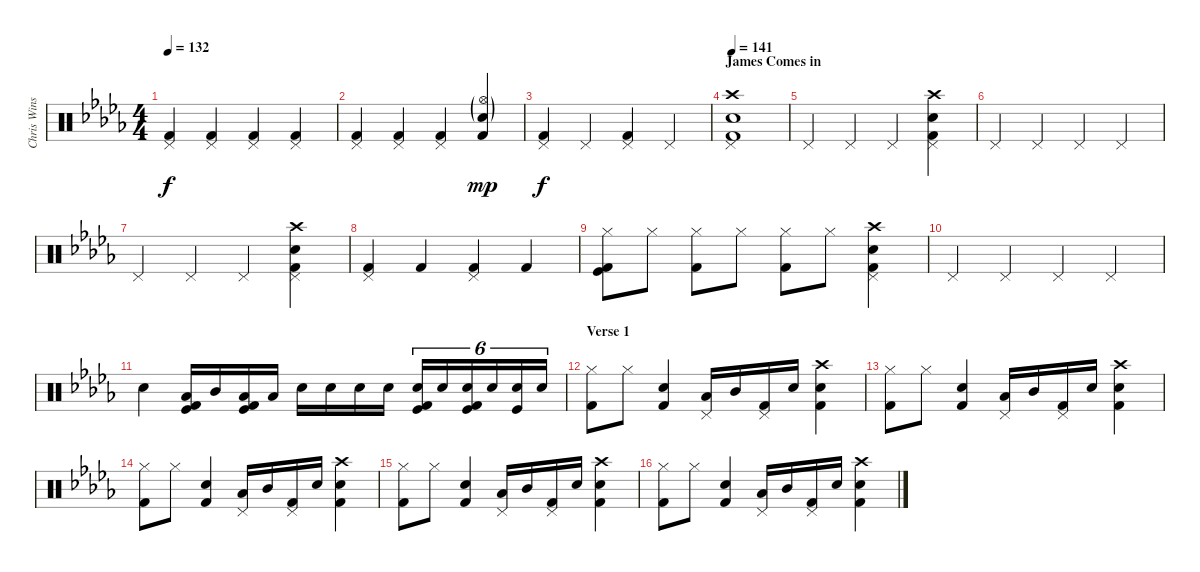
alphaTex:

\track ("Chris Winship (Drums)" "Chris Wins") {instrument percussion}
\staff {score}
\articulation defaults
\ts (4 4)
\tempo 132
\clef neutral
\ks db
("Kick (hit) 2" "Pedal Hi-Hat (hit)").4{dy f} ("Kick (hit) 2" "Pedal Hi-Hat (hit)").4 ("Kick (hit) 2" "Pedal Hi-Hat (hit)").4 ("Kick (hit) 2" "Pedal Hi-Hat (hit)").4 |
("Kick (hit) 2" "Pedal Hi-Hat (hit)").4 ("Kick (hit) 2" "Pedal Hi-Hat (hit)").4 ("Kick (hit) 2" "Pedal Hi-Hat (hit)").4 ("Kick (hit) 2" "Hi-Hat (open)"{g} "Electric Snare (hit)"{g}).4{dy mp} |
("Kick (hit) 2" "Pedal Hi-Hat (hit)").4{dy f} "Pedal Hi-Hat (hit)".4 ("Kick (hit) 2" "Pedal Hi-Hat (hit)").4 "Pedal Hi-Hat (hit)".4 |
\section ("" "James Comes in")
\tempo 141
("Crash high (hit)" "Pedal Hi-Hat (hit)" "Kick (hit) 2" "Electric Snare (hit)").1 |
"Pedal Hi-Hat (hit)".4 "Pedal Hi-Hat (hit)".4 "Pedal Hi-Hat (hit)".4 ("Pedal Hi-Hat (hit)" "Kick (hit) 2" "Electric Snare (hit)" "Crash high (hit)").4 |
"Pedal Hi-Hat (hit)".4 "Pedal Hi-Hat (hit)".4 "Pedal Hi-Hat (hit)".4 "Pedal Hi-Hat (hit)".4 |
"Pedal Hi-Hat (hit)".4 "Pedal Hi-Hat (hit)".4 "Pedal Hi-Hat (hit)".4 ("Pedal Hi-Hat (hit)" "Kick (hit) 2" "Electric Snare (hit)" "Crash high (hit)").4 |
("Pedal Hi-Hat (hit)" "Kick (hit) 2").4 "Kick (hit) 2".4 ("Pedal Hi-Hat (hit)" "Kick (hit) 2").4 "Kick (hit) 2".4 |
("Hi-Hat (closed)" "Kick (hit)" "Kick (hit) 2").8 "Hi-Hat (closed)".8 ("Hi-Hat (closed)" "Kick (hit) 2").8 "Hi-Hat (closed)".8 ("Hi-Hat (closed)" "Kick (hit) 2").8 "Hi-Hat (closed)".8 ("Pedal Hi-Hat (hit)" "Kick (hit) 2" "Electric Snare (hit)" "Crash high (hit)").4 |
"Pedal Hi-Hat (hit)".4 "Pedal Hi-Hat (hit)".4 "Pedal Hi-Hat (hit)".4 "Pedal Hi-Hat (hit)".4 |
"Electric Snare (hit)".4 ("Low Tom (hit)" "Kick (hit)" "Kick (hit) 2").16 "Mid Tom (hit)".16 ("Low Tom (hit)" "Kick (hit)" "Kick (hit) 2").16 "Low Tom (hit)".16 "Electric Snare (hit)".16 "Electric Snare (hit)".16 "Electric Snare (hit)".16 "Electric Snare (hit)".16 ("Electric Snare (hit)" "Kick (hit)" "Kick (hit) 2").16{tu (6 4)} "Electric Snare (hit)".16{tu (6 4)} ("Electric Snare (hit)" "Kick (hit)" "Kick (hit) 2").16{tu (6 4)} "Electric Snare (hit)".16{tu (6 4)} ("Electric Snare (hit)" "Kick (hit)").16{tu (6 4)} "Electric Snare (hit)".16{tu (6 4)} |
\section ("" "Verse 1")
("Hi-Hat (closed)" "Kick (hit) 2").8 "Hi-Hat (closed)".8 ("Electric Snare (hit)" "Kick (hit) 2").4 ("Pedal Hi-Hat (hit)" "Low Tom (hit)").16 "Mid Tom (hit)".16 ("Pedal Hi-Hat (hit)" "Kick (hit) 2").16 "Electric Snare (hit)".16 ("Crash high (hit)" "Kick (hit) 2" "Electric Snare (hit)").4 |
("Hi-Hat (closed)" "Kick (hit) 2").8 "Hi-Hat (closed)".8 ("Electric Snare (hit)" "Kick (hit) 2").4 ("Pedal Hi-Hat (hit)" "Low Tom (hit)").16 "Mid Tom (hit)".16 ("Pedal Hi-Hat (hit)" "Kick (hit) 2").16 "Electric Snare (hit)".16 ("Crash high (hit)" "Kick (hit) 2" "Electric Snare (hit)").4 |
("Hi-Hat (closed)" "Kick (hit) 2").8 "Hi-Hat (closed)".8 ("Electric Snare (hit)" "Kick (hit) 2").4 ("Pedal Hi-Hat (hit)" "Low Tom (hit)").16 "Mid Tom (hit)".16 ("Pedal Hi-Hat (hit)" "Kick (hit) 2").16 "Electric Snare (hit)".16 ("Crash high (hit)" "Kick (hit) 2" "Electric Snare (hit)").4 |
("Hi-Hat (closed)" "Kick (hit) 2").8 "Hi-Hat (closed)".8 ("Electric Snare (hit)" "Kick (hit) 2").4 ("Pedal Hi-Hat (hit)" "Low Tom (hit)").16 "Mid Tom (hit)".16 ("Pedal Hi-Hat (hit)" "Kick (hit) 2").16 "Electric Snare (hit)".16 ("Crash high (hit)" "Kick (hit) 2" "Electric Snare (hit)").4 |
("Hi-Hat (closed)" "Kick (hit) 2").8 "Hi-Hat (closed)".8 ("Electric Snare (hit)" "Kick (hit) 2").4 ("Pedal Hi-Hat (hit)" "Low Tom (hit)").16 "Mid Tom (hit)".16 ("Pedal Hi-Hat (hit)" "Kick (hit) 2").16 "Electric Snare (hit)".16 ("Crash high (hit)" "Kick (hit) 2" "Electric Snare (hit)").4
